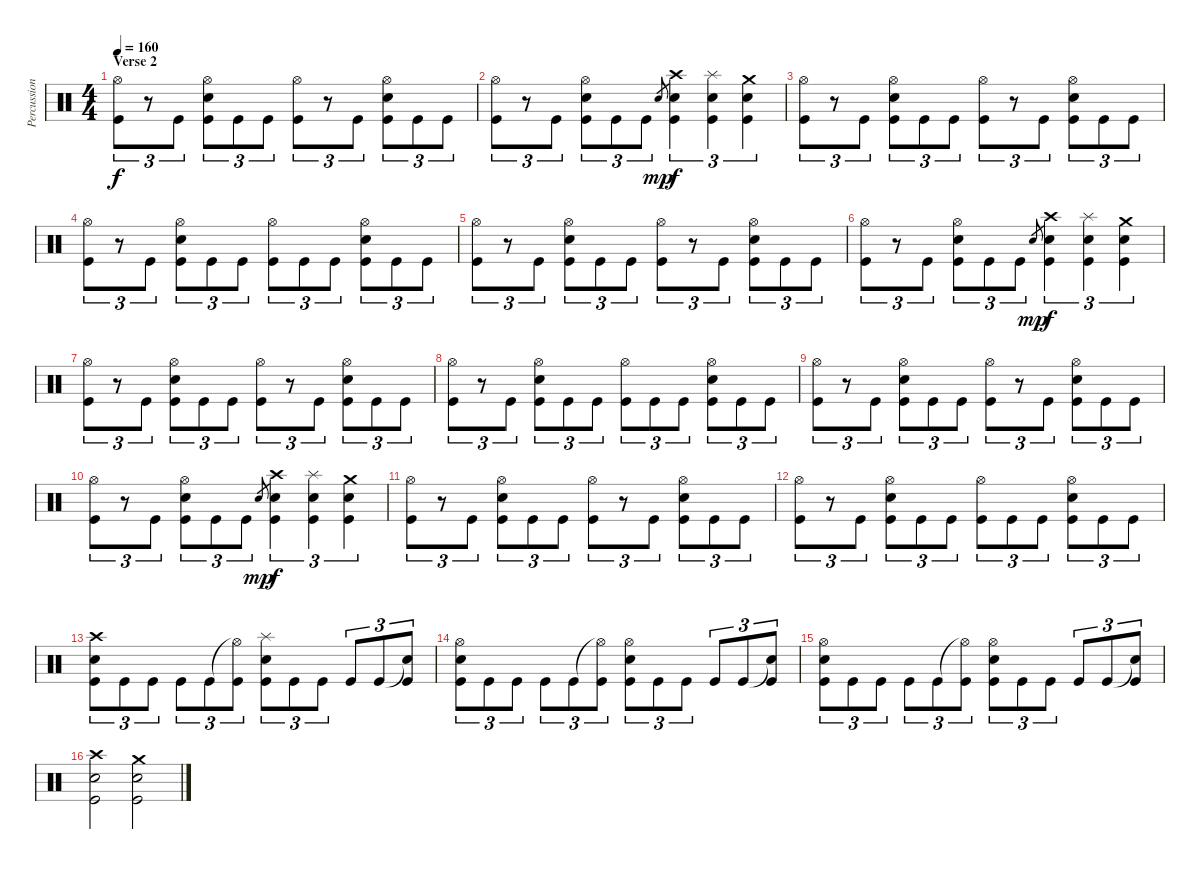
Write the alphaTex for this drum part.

\track ("Percussion" "Percussion") {instrument percussion}
\staff {score}
\articulation defaults
\ts (4 4)
\section ("" "Verse 2")
\tempo 160
\clef neutral
\ks c
("Hi-Hat (open)" "Kick (hit)").8{tu (3 2) dy f} r.8{tu (3 2)} "Kick (hit)".8{tu (3 2)} ("Hi-Hat (open)" "Snare (hit) 2" "Kick (hit)").8{tu (3 2)} "Kick (hit)".8{tu (3 2)} "Kick (hit)".8{tu (3 2)} ("Hi-Hat (open)" "Kick (hit)").8{tu (3 2)} r.8{tu (3 2)} "Kick (hit)".8{tu (3 2)} ("Hi-Hat (open)" "Snare (hit) 2" "Kick (hit)").8{tu (3 2)} "Kick (hit)".8{tu (3 2)} "Kick (hit)".8{tu (3 2)} |
("Hi-Hat (open)" "Kick (hit)").8{tu (3 2)} r.8{tu (3 2)} "Kick (hit)".8{tu (3 2)} ("Hi-Hat (open)" "Snare (hit) 2" "Kick (hit)").8{tu (3 2)} "Kick (hit)".8{tu (3 2)} "Kick (hit)".8{tu (3 2)} "Snare (hit) 2".8{gr dy mp} ("Snare (hit) 2" "Crash high (hit)" "Kick (hit)").4{tu (3 2) dy f} ("Snare (hit) 2" "Splash (hit)" "Kick (hit)").4{tu (3 2)} ("Snare (hit) 2" "Crash medium (hit)" "Kick (hit)").4{tu (3 2)} |
("Hi-Hat (open)" "Kick (hit)").8{tu (3 2)} r.8{tu (3 2)} "Kick (hit)".8{tu (3 2)} ("Hi-Hat (open)" "Snare (hit) 2" "Kick (hit)").8{tu (3 2)} "Kick (hit)".8{tu (3 2)} "Kick (hit)".8{tu (3 2)} ("Hi-Hat (open)" "Kick (hit)").8{tu (3 2)} r.8{tu (3 2)} "Kick (hit)".8{tu (3 2)} ("Hi-Hat (open)" "Snare (hit) 2" "Kick (hit)").8{tu (3 2)} "Kick (hit)".8{tu (3 2)} "Kick (hit)".8{tu (3 2)} |
("Hi-Hat (open)" "Kick (hit)").8{tu (3 2)} r.8{tu (3 2)} "Kick (hit)".8{tu (3 2)} ("Hi-Hat (open)" "Snare (hit) 2" "Kick (hit)").8{tu (3 2)} "Kick (hit)".8{tu (3 2)} "Kick (hit)".8{tu (3 2)} ("Hi-Hat (open)" "Kick (hit)").8{tu (3 2)} "Kick (hit)".8{tu (3 2)} "Kick (hit)".8{tu (3 2)} ("Hi-Hat (open)" "Snare (hit) 2" "Kick (hit)").8{tu (3 2)} "Kick (hit)".8{tu (3 2)} "Kick (hit)".8{tu (3 2)} |
("Hi-Hat (open)" "Kick (hit)").8{tu (3 2)} r.8{tu (3 2)} "Kick (hit)".8{tu (3 2)} ("Hi-Hat (open)" "Snare (hit) 2" "Kick (hit)").8{tu (3 2)} "Kick (hit)".8{tu (3 2)} "Kick (hit)".8{tu (3 2)} ("Hi-Hat (open)" "Kick (hit)").8{tu (3 2)} r.8{tu (3 2)} "Kick (hit)".8{tu (3 2)} ("Hi-Hat (open)" "Snare (hit) 2" "Kick (hit)").8{tu (3 2)} "Kick (hit)".8{tu (3 2)} "Kick (hit)".8{tu (3 2)} |
("Hi-Hat (open)" "Kick (hit)").8{tu (3 2)} r.8{tu (3 2)} "Kick (hit)".8{tu (3 2)} ("Hi-Hat (open)" "Snare (hit) 2" "Kick (hit)").8{tu (3 2)} "Kick (hit)".8{tu (3 2)} "Kick (hit)".8{tu (3 2)} "Snare (hit) 2".8{gr dy mp} ("Snare (hit) 2" "Crash high (hit)" "Kick (hit)").4{tu (3 2) dy f} ("Snare (hit) 2" "Splash (hit)" "Kick (hit)").4{tu (3 2)} ("Snare (hit) 2" "Crash medium (hit)" "Kick (hit)").4{tu (3 2)} |
("Hi-Hat (open)" "Kick (hit)").8{tu (3 2)} r.8{tu (3 2)} "Kick (hit)".8{tu (3 2)} ("Hi-Hat (open)" "Snare (hit) 2" "Kick (hit)").8{tu (3 2)} "Kick (hit)".8{tu (3 2)} "Kick (hit)".8{tu (3 2)} ("Hi-Hat (open)" "Kick (hit)").8{tu (3 2)} r.8{tu (3 2)} "Kick (hit)".8{tu (3 2)} ("Hi-Hat (open)" "Snare (hit) 2" "Kick (hit)").8{tu (3 2)} "Kick (hit)".8{tu (3 2)} "Kick (hit)".8{tu (3 2)} |
("Hi-Hat (open)" "Kick (hit)").8{tu (3 2)} r.8{tu (3 2)} "Kick (hit)".8{tu (3 2)} ("Hi-Hat (open)" "Snare (hit) 2" "Kick (hit)").8{tu (3 2)} "Kick (hit)".8{tu (3 2)} "Kick (hit)".8{tu (3 2)} ("Hi-Hat (open)" "Kick (hit)").8{tu (3 2)} "Kick (hit)".8{tu (3 2)} "Kick (hit)".8{tu (3 2)} ("Hi-Hat (open)" "Snare (hit) 2" "Kick (hit)").8{tu (3 2)} "Kick (hit)".8{tu (3 2)} "Kick (hit)".8{tu (3 2)} |
("Hi-Hat (open)" "Kick (hit)").8{tu (3 2)} r.8{tu (3 2)} "Kick (hit)".8{tu (3 2)} ("Hi-Hat (open)" "Snare (hit) 2" "Kick (hit)").8{tu (3 2)} "Kick (hit)".8{tu (3 2)} "Kick (hit)".8{tu (3 2)} ("Hi-Hat (open)" "Kick (hit)").8{tu (3 2)} r.8{tu (3 2)} "Kick (hit)".8{tu (3 2)} ("Hi-Hat (open)" "Snare (hit) 2" "Kick (hit)").8{tu (3 2)} "Kick (hit)".8{tu (3 2)} "Kick (hit)".8{tu (3 2)} |
("Hi-Hat (open)" "Kick (hit)").8{tu (3 2)} r.8{tu (3 2)} "Kick (hit)".8{tu (3 2)} ("Hi-Hat (open)" "Snare (hit) 2" "Kick (hit)").8{tu (3 2)} "Kick (hit)".8{tu (3 2)} "Kick (hit)".8{tu (3 2)} "Snare (hit) 2".8{gr dy mp} ("Snare (hit) 2" "Crash high (hit)" "Kick (hit)").4{tu (3 2) dy f} ("Snare (hit) 2" "Splash (hit)" "Kick (hit)").4{tu (3 2)} ("Snare (hit) 2" "Crash medium (hit)" "Kick (hit)").4{tu (3 2)} |
("Hi-Hat (open)" "Kick (hit)").8{tu (3 2)} r.8{tu (3 2)} "Kick (hit)".8{tu (3 2)} ("Hi-Hat (open)" "Snare (hit) 2" "Kick (hit)").8{tu (3 2)} "Kick (hit)".8{tu (3 2)} "Kick (hit)".8{tu (3 2)} ("Hi-Hat (open)" "Kick (hit)").8{tu (3 2)} r.8{tu (3 2)} "Kick (hit)".8{tu (3 2)} ("Hi-Hat (open)" "Snare (hit) 2" "Kick (hit)").8{tu (3 2)} "Kick (hit)".8{tu (3 2)} "Kick (hit)".8{tu (3 2)} |
("Hi-Hat (open)" "Kick (hit)").8{tu (3 2)} r.8{tu (3 2)} "Kick (hit)".8{tu (3 2)} ("Hi-Hat (open)" "Snare (hit) 2" "Kick (hit)").8{tu (3 2)} "Kick (hit)".8{tu (3 2)} "Kick (hit)".8{tu (3 2)} ("Hi-Hat (open)" "Kick (hit)").8{tu (3 2)} "Kick (hit)".8{tu (3 2)} "Kick (hit)".8{tu (3 2)} ("Hi-Hat (open)" "Snare (hit) 2" "Kick (hit)").8{tu (3 2)} "Kick (hit)".8{tu (3 2)} "Kick (hit)".8{tu (3 2)} |
("Snare (hit) 2" "Crash high (hit)" "Kick (hit)").8{tu (3 2)} "Kick (hit)".8{tu (3 2)} "Kick (hit)".8{tu (3 2)} "Kick (hit)".8{tu (3 2)} "Kick (hit)".8{tu (3 2)} ("Hi-Hat (open)"{t} "Kick (hit)").8{tu (3 2)} ("Splash (hit)" "Snare (hit) 2" "Kick (hit)").8{tu (3 2)} "Kick (hit)".8{tu (3 2)} "Kick (hit)".8{tu (3 2)} "Kick (hit)".8{tu (3 2)} "Kick (hit)".8{tu (3 2)} ("Snare (hit)"{t} "Kick (hit)").8{tu (3 2)} |
("Snare (hit) 2" "Hi-Hat (open)" "Kick (hit)").8{tu (3 2)} "Kick (hit)".8{tu (3 2)} "Kick (hit)".8{tu (3 2)} "Kick (hit)".8{tu (3 2)} "Kick (hit)".8{tu (3 2)} ("Hi-Hat (open)"{t} "Kick (hit)").8{tu (3 2)} ("Hi-Hat (open)" "Snare (hit) 2" "Kick (hit)").8{tu (3 2)} "Kick (hit)".8{tu (3 2)} "Kick (hit)".8{tu (3 2)} "Kick (hit)".8{tu (3 2)} "Kick (hit)".8{tu (3 2)} ("Snare (hit)"{t} "Kick (hit)").8{tu (3 2)} |
("Snare (hit) 2" "Hi-Hat (open)" "Kick (hit)").8{tu (3 2)} "Kick (hit)".8{tu (3 2)} "Kick (hit)".8{tu (3 2)} "Kick (hit)".8{tu (3 2)} "Kick (hit)".8{tu (3 2)} ("Hi-Hat (open)"{t} "Kick (hit)").8{tu (3 2)} ("Hi-Hat (open)" "Snare (hit) 2" "Kick (hit)").8{tu (3 2)} "Kick (hit)".8{tu (3 2)} "Kick (hit)".8{tu (3 2)} "Kick (hit)".8{tu (3 2)} "Kick (hit)".8{tu (3 2)} ("Snare (hit)"{t} "Kick (hit)").8{tu (3 2)} |
("Crash high (hit)" "Snare (hit) 2" "Kick (hit)").2 ("Crash medium (hit)" "Snare (hit) 2" "Kick (hit)").2
